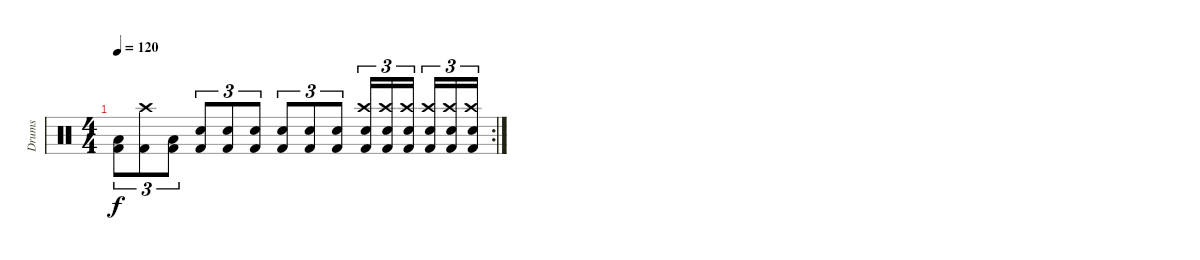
\track ("Drums" "Drums") {instrument percussion}
\staff {score}
\articulation defaults
\rc 2
\ts (4 4)
\tempo 120
\clef neutral
\ks c
("Low Tom (hit)" "Kick (hit) 2").8{tu (3 2) dy f} ("Crash high (hit)" "Kick (hit) 2").8{tu (3 2)} ("Low Tom (hit)" "Kick (hit) 2").8{tu (3 2)} ("Snare (hit) 2" "Kick (hit) 2").8{tu (3 2)} ("Snare (hit) 2" "Kick (hit) 2").8{tu (3 2)} ("Snare (hit) 2" "Kick (hit) 2").8{tu (3 2)} ("Snare (hit) 2" "Kick (hit) 2").8{tu (3 2)} ("Snare (hit) 2" "Kick (hit) 2").8{tu (3 2)} ("Snare (hit) 2" "Kick (hit) 2").8{tu (3 2)} ("Crash high (hit)" "Snare (hit) 2" "Kick (hit) 2").16{tu (3 2)} ("Crash high (hit)" "Snare (hit) 2" "Kick (hit) 2").16{tu (3 2)} ("Crash high (hit)" "Snare (hit) 2" "Kick (hit) 2").16{tu (3 2)} ("Crash high (hit)" "Snare (hit) 2" "Kick (hit) 2").16{tu (3 2)} ("Crash high (hit)" "Snare (hit) 2" "Kick (hit) 2").16{tu (3 2)} ("Crash high (hit)" "Snare (hit) 2" "Kick (hit) 2").16{tu (3 2)}
